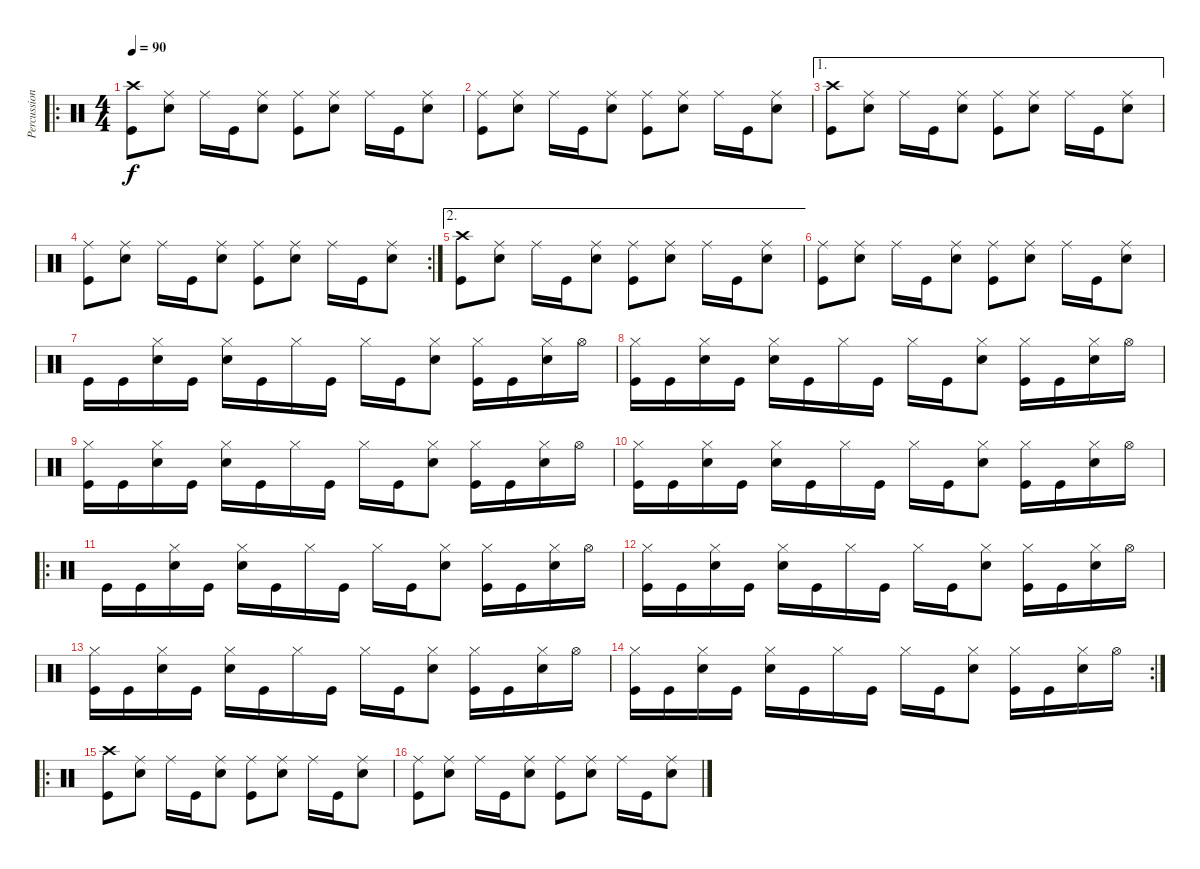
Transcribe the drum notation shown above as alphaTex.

\track ("Percussion" "Percussion") {instrument percussion}
\staff {score}
\articulation defaults
\ro
\ts (4 4)
\tempo 90
\clef neutral
\ks c
("Crash high (hit)" "Kick (hit)").8{dy f} ("Ride (middle)" "Electric Snare (hit)").8 "Ride (middle)".16 "Kick (hit)".16 ("Ride (middle)" "Electric Snare (hit)").8 ("Ride (middle)" "Kick (hit)").8 ("Ride (middle)" "Electric Snare (hit)").8 "Ride (middle)".16 "Kick (hit)".16 ("Ride (middle)" "Electric Snare (hit)").8 |
("Ride (middle)" "Kick (hit)").8 ("Ride (middle)" "Electric Snare (hit)").8 "Ride (middle)".16 "Kick (hit)".16 ("Ride (middle)" "Electric Snare (hit)").8 ("Ride (middle)" "Kick (hit)").8 ("Ride (middle)" "Electric Snare (hit)").8 "Ride (middle)".16 "Kick (hit)".16 ("Ride (middle)" "Electric Snare (hit)").8 |
\ae 1
("Crash high (hit)" "Kick (hit)").8 ("Ride (middle)" "Electric Snare (hit)").8 "Ride (middle)".16 "Kick (hit)".16 ("Ride (middle)" "Electric Snare (hit)").8 ("Ride (middle)" "Kick (hit)").8 ("Ride (middle)" "Electric Snare (hit)").8 "Ride (middle)".16 "Kick (hit)".16 ("Ride (middle)" "Electric Snare (hit)").8 |
\rc 2
("Ride (middle)" "Kick (hit)").8 ("Ride (middle)" "Electric Snare (hit)").8 "Ride (middle)".16 "Kick (hit)".16 ("Ride (middle)" "Electric Snare (hit)").8 ("Ride (middle)" "Kick (hit)").8 ("Ride (middle)" "Electric Snare (hit)").8 "Ride (middle)".16 "Kick (hit)".16 ("Ride (middle)" "Electric Snare (hit)").8 |
\ae 2
("Crash high (hit)" "Kick (hit)").8 ("Ride (middle)" "Electric Snare (hit)").8 "Ride (middle)".16 "Kick (hit)".16 ("Ride (middle)" "Electric Snare (hit)").8 ("Ride (middle)" "Kick (hit)").8 ("Ride (middle)" "Electric Snare (hit)").8 "Ride (middle)".16 "Kick (hit)".16 ("Ride (middle)" "Electric Snare (hit)").8 |
("Ride (middle)" "Kick (hit)").8 ("Ride (middle)" "Electric Snare (hit)").8 "Ride (middle)".16 "Kick (hit)".16 ("Ride (middle)" "Electric Snare (hit)").8 ("Ride (middle)" "Kick (hit)").8 ("Ride (middle)" "Electric Snare (hit)").8 "Ride (middle)".16 "Kick (hit)".16 ("Ride (middle)" "Electric Snare (hit)").8 |
"Kick (hit)".16 "Kick (hit)".16 ("Hi-Hat (closed)" "Electric Snare (hit)").16 "Kick (hit)".16 ("Hi-Hat (closed)" "Electric Snare (hit)").16 "Kick (hit)".16 "Hi-Hat (closed)".16 "Kick (hit)".16 "Hi-Hat (closed)".16 "Kick (hit)".16 ("Hi-Hat (closed)" "Electric Snare (hit)").8 ("Hi-Hat (closed)" "Kick (hit)").16 "Kick (hit)".16 ("Hi-Hat (closed)" "Electric Snare (hit)").16 "Hi-Hat (open)".16 |
("Hi-Hat (closed)" "Kick (hit)").16 "Kick (hit)".16 ("Hi-Hat (closed)" "Electric Snare (hit)").16 "Kick (hit)".16 ("Hi-Hat (closed)" "Electric Snare (hit)").16 "Kick (hit)".16 "Hi-Hat (closed)".16 "Kick (hit)".16 "Hi-Hat (closed)".16 "Kick (hit)".16 ("Hi-Hat (closed)" "Electric Snare (hit)").8 ("Hi-Hat (closed)" "Kick (hit)").16 "Kick (hit)".16 ("Hi-Hat (closed)" "Electric Snare (hit)").16 "Hi-Hat (open)".16 |
("Hi-Hat (closed)" "Kick (hit)").16 "Kick (hit)".16 ("Hi-Hat (closed)" "Electric Snare (hit)").16 "Kick (hit)".16 ("Hi-Hat (closed)" "Electric Snare (hit)").16 "Kick (hit)".16 "Hi-Hat (closed)".16 "Kick (hit)".16 "Hi-Hat (closed)".16 "Kick (hit)".16 ("Hi-Hat (closed)" "Electric Snare (hit)").8 ("Hi-Hat (closed)" "Kick (hit)").16 "Kick (hit)".16 ("Hi-Hat (closed)" "Electric Snare (hit)").16 "Hi-Hat (open)".16 |
("Hi-Hat (closed)" "Kick (hit)").16 "Kick (hit)".16 ("Hi-Hat (closed)" "Electric Snare (hit)").16 "Kick (hit)".16 ("Hi-Hat (closed)" "Electric Snare (hit)").16 "Kick (hit)".16 "Hi-Hat (closed)".16 "Kick (hit)".16 "Hi-Hat (closed)".16 "Kick (hit)".16 ("Hi-Hat (closed)" "Electric Snare (hit)").8 ("Hi-Hat (closed)" "Kick (hit)").16 "Kick (hit)".16 ("Hi-Hat (closed)" "Electric Snare (hit)").16 "Hi-Hat (open)".16 |
\ro "Kick (hit)".16 "Kick (hit)".16
("Hi-Hat (closed)" "Electric Snare (hit)").16 "Kick (hit)".16 ("Hi-Hat (closed)" "Electric Snare (hit)").16 "Kick (hit)".16 "Hi-Hat (closed)".16 "Kick (hit)".16 "Hi-Hat (closed)".16 "Kick (hit)".16 ("Hi-Hat (closed)" "Electric Snare (hit)").8 ("Hi-Hat (closed)" "Kick (hit)").16 "Kick (hit)".16 ("Hi-Hat (closed)" "Electric Snare (hit)").16 "Hi-Hat (open)".16 |
("Hi-Hat (closed)" "Kick (hit)").16 "Kick (hit)".16 ("Hi-Hat (closed)" "Electric Snare (hit)").16 "Kick (hit)".16 ("Hi-Hat (closed)" "Electric Snare (hit)").16 "Kick (hit)".16 "Hi-Hat (closed)".16 "Kick (hit)".16 "Hi-Hat (closed)".16 "Kick (hit)".16 ("Hi-Hat (closed)" "Electric Snare (hit)").8 ("Hi-Hat (closed)" "Kick (hit)").16 "Kick (hit)".16 ("Hi-Hat (closed)" "Electric Snare (hit)").16 "Hi-Hat (open)".16 |
("Hi-Hat (closed)" "Kick (hit)").16 "Kick (hit)".16 ("Hi-Hat (closed)" "Electric Snare (hit)").16 "Kick (hit)".16 ("Hi-Hat (closed)" "Electric Snare (hit)").16 "Kick (hit)".16 "Hi-Hat (closed)".16 "Kick (hit)".16 "Hi-Hat (closed)".16 "Kick (hit)".16 ("Hi-Hat (closed)" "Electric Snare (hit)").8 ("Hi-Hat (closed)" "Kick (hit)").16 "Kick (hit)".16 ("Hi-Hat (closed)" "Electric Snare (hit)").16 "Hi-Hat (open)".16 |
\rc 2
("Hi-Hat (closed)" "Kick (hit)").16 "Kick (hit)".16 ("Hi-Hat (closed)" "Electric Snare (hit)").16 "Kick (hit)".16 ("Hi-Hat (closed)" "Electric Snare (hit)").16 "Kick (hit)".16 "Hi-Hat (closed)".16 "Kick (hit)".16 "Hi-Hat (closed)".16 "Kick (hit)".16 ("Hi-Hat (closed)" "Electric Snare (hit)").8 ("Hi-Hat (closed)" "Kick (hit)").16 "Kick (hit)".16 ("Hi-Hat (closed)" "Electric Snare (hit)").16 "Hi-Hat (open)".16 |
\ro
("Crash high (hit)" "Kick (hit)").8 ("Ride (middle)" "Electric Snare (hit)").8 "Ride (middle)".16 "Kick (hit)".16 ("Ride (middle)" "Electric Snare (hit)").8 ("Ride (middle)" "Kick (hit)").8 ("Ride (middle)" "Electric Snare (hit)").8 "Ride (middle)".16 "Kick (hit)".16 ("Ride (middle)" "Electric Snare (hit)").8 |
("Ride (middle)" "Kick (hit)").8 ("Ride (middle)" "Electric Snare (hit)").8 "Ride (middle)".16 "Kick (hit)".16 ("Ride (middle)" "Electric Snare (hit)").8 ("Ride (middle)" "Kick (hit)").8 ("Ride (middle)" "Electric Snare (hit)").8 "Ride (middle)".16 "Kick (hit)".16 ("Ride (middle)" "Electric Snare (hit)").8
